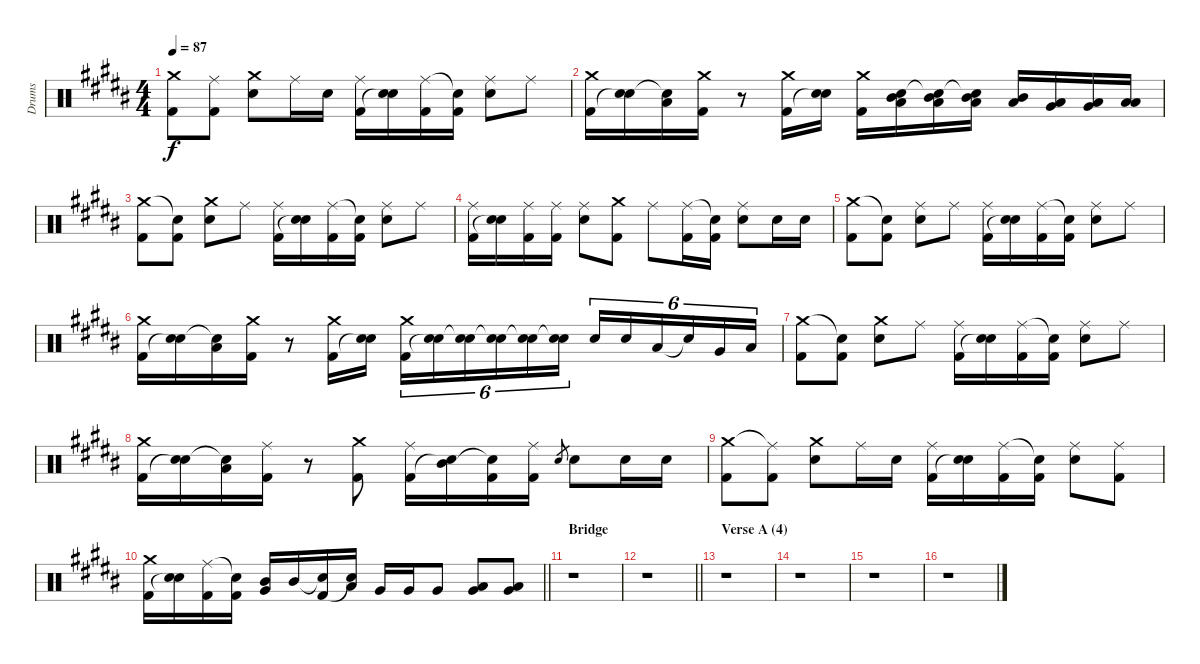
\track ("Drums" "Drums") {instrument percussion}
\staff {score}
\articulation defaults
\ts (4 4)
\tempo 87
\clef neutral
\ks b
("Crash medium (hit)" "Kick (hit) 2").8{dy f} ("Ride (middle)" "Kick (hit) 2").8 ("Crash medium (hit)" "Electric Snare (hit)").8 "Ride (middle)".16 "Electric Snare (hit)".16 ("Ride (middle)" "Kick (hit) 2").16 ("Electric Snare (hit)" "Snare (hit)"{t}).16 ("Ride (middle)" "Kick (hit) 2").16 ("Snare (hit)"{t} "Kick (hit) 2").16 ("Ride (middle)" "Electric Snare (hit)").8 "Ride (middle)".8 |
("Crash medium (hit)" "Kick (hit) 2").16 ("Electric Snare (hit)" "Snare (hit)"{t}).16 ("Low Tom (hit)" "Snare (hit)"{t}).16 ("Crash medium (hit)" "Kick (hit) 2").16 r.8 ("Crash medium (hit)" "Kick (hit) 2").16 ("Electric Snare (hit)" "Snare (hit)"{t}).16 ("Crash medium (hit)" "Kick (hit) 2").16 ("Mid Tom (hit)" "Low Tom (hit)" "Snare (hit)").16 ("Mid Tom (hit)" "Low Tom (hit)" "Snare (hit)"{t}).16 ("Mid Tom (hit)" "Low Tom (hit)" "Snare (hit)"{t}).16 ("Mid Tom (hit)" "Low Tom (hit)").16 ("Low Tom (hit)" "Very Low Tom (hit)").16 ("Low Tom (hit)" "Very Low Tom (hit)").16 ("Low Tom (hit)" "Low Floor Tom (hit)").16 |
("Crash medium (hit)" "Kick (hit) 2").8 ("Snare (hit)"{t} "Kick (hit) 2").8 ("Crash medium (hit)" "Electric Snare (hit)").8 "Ride (middle)".8 ("Ride (middle)" "Kick (hit) 2").16 ("Electric Snare (hit)" "Snare (hit)"{t}).16 ("Ride (middle)" "Kick (hit) 2").16 ("Snare (hit)"{t} "Kick (hit) 2").16 ("Ride (middle)" "Electric Snare (hit)").8 "Ride (middle)".8 |
("Ride (middle)" "Kick (hit) 2").16 ("Electric Snare (hit)" "Snare (hit)"{t}).16 ("Ride (middle)" "Kick (hit) 2").16 ("Ride (middle)" "Kick (hit) 2").16 ("Ride (middle)" "Electric Snare (hit)").8 ("Crash medium (hit)" "Kick (hit) 2").8 "Ride (middle)".8 ("Ride (middle)" "Kick (hit) 2").16 ("Snare (hit)"{t} "Kick (hit) 2").16 ("Ride (middle)" "Electric Snare (hit)").8 "Electric Snare (hit)".16 "Electric Snare (hit)".16 |
("Crash medium (hit)" "Kick (hit) 2").8 ("Snare (hit)"{t} "Kick (hit) 2").8 ("Ride (middle)" "Electric Snare (hit)").8 "Ride (middle)".8 ("Ride (middle)" "Kick (hit) 2").16 ("Electric Snare (hit)" "Snare (hit)"{t}).16 ("Ride (middle)" "Kick (hit) 2").16 ("Snare (hit)"{t} "Kick (hit) 2").16 ("Ride (middle)" "Electric Snare (hit)").8 "Ride (middle)".8 |
("Crash medium (hit)" "Kick (hit) 2").16 ("Electric Snare (hit)" "Snare (hit)"{t}).16 ("Low Tom (hit)" "Snare (hit)"{t}).16 ("Crash medium (hit)" "Kick (hit) 2").16 r.8 ("Crash medium (hit)" "Kick (hit) 2").16 ("Electric Snare (hit)" "Snare (hit)"{t}).16 ("Crash medium (hit)" "Kick (hit) 2").16{tu (6 4)} ("Electric Snare (hit)" "Snare (hit)"{t}).16{tu (6 4)} ("Electric Snare (hit)" "Snare (hit)"{t}).16{tu (6 4)} ("Electric Snare (hit)" "Snare (hit)"{t}).16{tu (6 4)} ("Electric Snare (hit)" "Snare (hit)"{t}).16{tu (6 4)} ("Electric Snare (hit)" "Snare (hit)"{t}).16{tu (6 4)} "Electric Snare (hit)".16{tu (6 4)} "Electric Snare (hit)".16{tu (6 4)} "Low Tom (hit)".16{tu (6 4)} "Snare (hit)"{t}.16{tu (6 4)} "Very Low Tom (hit)".16{tu (6 4)} "Low Floor Tom (hit)".16{tu (6 4)} |
("Crash medium (hit)" "Kick (hit) 2").8 ("Snare (hit)"{t} "Kick (hit) 2").8 ("Crash medium (hit)" "Electric Snare (hit)").8 "Ride (middle)".8 ("Ride (middle)" "Kick (hit) 2").16 ("Electric Snare (hit)" "Snare (hit)"{t}).16 ("Ride (middle)" "Kick (hit) 2").16 ("Snare (hit)"{t} "Kick (hit) 2").16 ("Ride (middle)" "Electric Snare (hit)").8 "Ride (middle)".8 |
("Crash medium (hit)" "Kick (hit) 2").16 ("Electric Snare (hit)" "Snare (hit)"{t}).16 ("Low Tom (hit)" "Snare (hit)"{t}).16 ("Ride (middle)" "Kick (hit) 2").16 r.8 ("Crash medium (hit)" "Kick (hit) 2").8 ("Ride (middle)" "Kick (hit) 2").16 ("Mid Tom (hit)" "Snare (hit)"{t}).16 ("Snare (hit)"{t} "Kick (hit) 2").16 ("Ride (middle)" "Kick (hit) 2").16 "Electric Snare (hit)".8{gr} "Electric Snare (hit)".8 "Electric Snare (hit)".16 "Electric Snare (hit)".16 |
("Crash medium (hit)" "Kick (hit) 2").8 ("Ride (middle)"{t} "Kick (hit) 2").8 ("Crash medium (hit)" "Electric Snare (hit)").8 "Ride (middle)".16 "Electric Snare (hit)".16 ("Ride (middle)" "Kick (hit) 2").16 ("Electric Snare (hit)" "Snare (hit)"{t}).16 ("Ride (middle)" "Kick (hit) 2").16 ("Snare (hit)"{t} "Kick (hit) 2").16 ("Ride (middle)" "Electric Snare (hit)").8 ("Ride (middle)" "Kick (hit) 2").8 |
\barLineRight lightlight
("Crash medium (hit)" "Kick (hit) 2").16 ("Electric Snare (hit)" "Snare (hit)"{t}).16 ("Ride (middle)" "Kick (hit) 2").16 ("Snare (hit)"{t} "Kick (hit) 2").16 ("Mid Tom (hit)" "Very Low Tom (hit)").16 "Mid Tom (hit)".16 ("Snare (hit)"{t} "Kick (hit) 2").16 ("Low Tom (hit)" "Snare (hit)"{t}).16 "Very Low Tom (hit)".16 "Very Low Tom (hit)".16 "Very Low Tom (hit)".8 ("Very Low Tom (hit)" "Low Floor Tom (hit)").8 ("Very Low Tom (hit)" "Low Floor Tom (hit)").8 |
\section ("" "Bridge")
r.1 |
\barLineRight lightlight
r.1 |
\section ("" "Verse A (4)")
r.1 |
r.1 |
r.1 |
r.1
